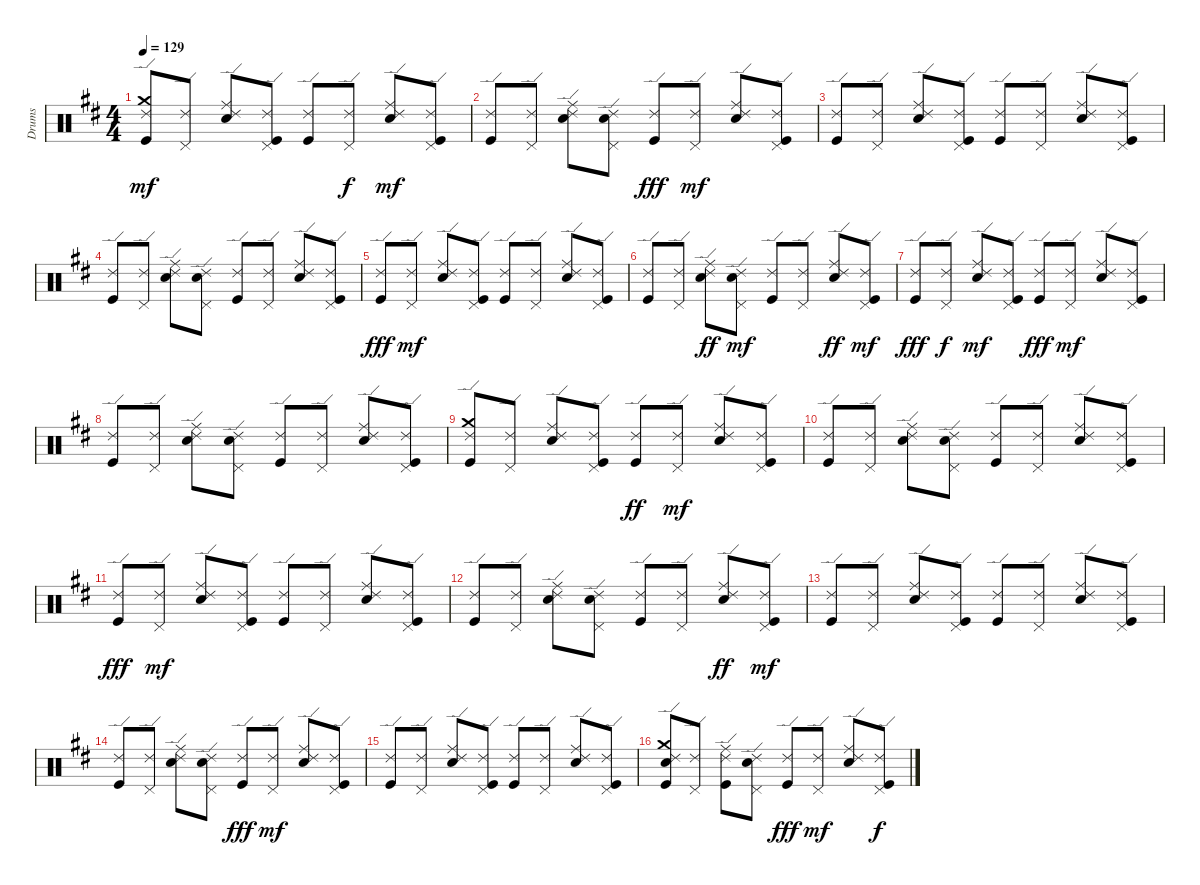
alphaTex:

\track ("Drums" "Drums") {instrument percussion}
\staff {score}
\articulation defaults
\ts (4 4)
\tempo 129
\clef neutral
\ks d
("Kick (hit)" "Crash medium (hit)" "Ride (edge) 2").8{dy mf} ("Pedal Hi-Hat (hit)" "Ride (edge) 2").8 ("Snare (hit) 2" "Ride (middle)" "Ride (edge) 2").8 ("Kick (hit)" "Pedal Hi-Hat (hit)" "Ride (edge) 2").8 ("Kick (hit)" "Ride (edge) 2").8 ("Pedal Hi-Hat (hit)" "Ride (edge) 2").8{dy f} ("Snare (hit) 2" "Ride (middle)" "Ride (edge) 2").8{dy mf} ("Kick (hit)" "Pedal Hi-Hat (hit)" "Ride (edge) 2").8 |
("Kick (hit)" "Ride (edge) 2").8 ("Pedal Hi-Hat (hit)" "Ride (edge) 2").8 ("Snare (hit) 2" "Ride (middle)" "Ride (edge) 2").8 ("Snare (hit) 2" "Pedal Hi-Hat (hit)" "Ride (edge) 2").8 ("Kick (hit)" "Ride (edge) 2").8{dy fff} ("Pedal Hi-Hat (hit)" "Ride (edge) 2").8{dy mf} ("Snare (hit) 2" "Ride (middle)" "Ride (edge) 2").8 ("Kick (hit)" "Pedal Hi-Hat (hit)" "Ride (edge) 2").8 |
("Kick (hit)" "Ride (edge) 2").8 ("Pedal Hi-Hat (hit)" "Ride (edge) 2").8 ("Snare (hit) 2" "Ride (middle)" "Ride (edge) 2").8 ("Kick (hit)" "Pedal Hi-Hat (hit)" "Ride (edge) 2").8 ("Kick (hit)" "Ride (edge) 2").8 ("Pedal Hi-Hat (hit)" "Ride (edge) 2").8 ("Snare (hit) 2" "Ride (middle)" "Ride (edge) 2").8 ("Kick (hit)" "Pedal Hi-Hat (hit)" "Ride (edge) 2").8 |
("Kick (hit)" "Ride (edge) 2").8 ("Pedal Hi-Hat (hit)" "Ride (edge) 2").8 ("Snare (hit) 2" "Ride (middle)" "Ride (edge) 2").8 ("Snare (hit) 2" "Pedal Hi-Hat (hit)" "Ride (edge) 2").8 ("Kick (hit)" "Ride (edge) 2").8 ("Pedal Hi-Hat (hit)" "Ride (edge) 2").8 ("Snare (hit) 2" "Ride (middle)" "Ride (edge) 2").8 ("Kick (hit)" "Pedal Hi-Hat (hit)" "Ride (edge) 2").8 |
("Kick (hit)" "Ride (edge) 2").8{dy fff} ("Pedal Hi-Hat (hit)" "Ride (edge) 2").8{dy mf} ("Snare (hit) 2" "Ride (middle)" "Ride (edge) 2").8 ("Kick (hit)" "Pedal Hi-Hat (hit)" "Ride (edge) 2").8 ("Kick (hit)" "Ride (edge) 2").8 ("Pedal Hi-Hat (hit)" "Ride (edge) 2").8 ("Snare (hit) 2" "Ride (middle)" "Ride (edge) 2").8 ("Kick (hit)" "Pedal Hi-Hat (hit)" "Ride (edge) 2").8 |
("Kick (hit)" "Ride (edge) 2").8 ("Pedal Hi-Hat (hit)" "Ride (edge) 2").8 ("Snare (hit) 2" "Ride (middle)" "Ride (edge) 2").8{dy ff} ("Snare (hit) 2" "Pedal Hi-Hat (hit)" "Ride (edge) 2").8{dy mf} ("Kick (hit)" "Ride (edge) 2").8 ("Pedal Hi-Hat (hit)" "Ride (edge) 2").8 ("Snare (hit) 2" "Ride (middle)" "Ride (edge) 2").8{dy ff} ("Kick (hit)" "Pedal Hi-Hat (hit)" "Ride (edge) 2").8{dy mf} |
("Kick (hit)" "Ride (edge) 2").8{dy fff} ("Pedal Hi-Hat (hit)" "Ride (edge) 2").8{dy f} ("Snare (hit) 2" "Ride (middle)" "Ride (edge) 2").8{dy mf} ("Kick (hit)" "Pedal Hi-Hat (hit)" "Ride (edge) 2").8 ("Kick (hit)" "Ride (edge) 2").8{dy fff} ("Pedal Hi-Hat (hit)" "Ride (edge) 2").8{dy mf} ("Snare (hit) 2" "Ride (middle)" "Ride (edge) 2").8 ("Kick (hit)" "Pedal Hi-Hat (hit)" "Ride (edge) 2").8 |
("Kick (hit)" "Ride (edge) 2").8 ("Pedal Hi-Hat (hit)" "Ride (edge) 2").8 ("Snare (hit) 2" "Ride (middle)" "Ride (edge) 2").8 ("Snare (hit) 2" "Pedal Hi-Hat (hit)" "Ride (edge) 2").8 ("Kick (hit)" "Ride (edge) 2").8 ("Pedal Hi-Hat (hit)" "Ride (edge) 2").8 ("Snare (hit) 2" "Ride (middle)" "Ride (edge) 2").8 ("Kick (hit)" "Pedal Hi-Hat (hit)" "Ride (edge) 2").8 |
("Kick (hit)" "Crash medium (hit)" "Ride (edge) 2").8 ("Pedal Hi-Hat (hit)" "Ride (edge) 2").8 ("Snare (hit) 2" "Ride (middle)" "Ride (edge) 2").8 ("Kick (hit)" "Pedal Hi-Hat (hit)" "Ride (edge) 2").8 ("Kick (hit)" "Ride (edge) 2").8{dy ff} ("Pedal Hi-Hat (hit)" "Ride (edge) 2").8{dy mf} ("Snare (hit) 2" "Ride (middle)" "Ride (edge) 2").8 ("Kick (hit)" "Pedal Hi-Hat (hit)" "Ride (edge) 2").8 |
("Kick (hit)" "Ride (edge) 2").8 ("Pedal Hi-Hat (hit)" "Ride (edge) 2").8 ("Snare (hit) 2" "Ride (middle)" "Ride (edge) 2").8 ("Snare (hit) 2" "Pedal Hi-Hat (hit)" "Ride (edge) 2").8 ("Kick (hit)" "Ride (edge) 2").8 ("Pedal Hi-Hat (hit)" "Ride (edge) 2").8 ("Snare (hit) 2" "Ride (middle)" "Ride (edge) 2").8 ("Kick (hit)" "Pedal Hi-Hat (hit)" "Ride (edge) 2").8 |
("Kick (hit)" "Ride (edge) 2").8{dy fff} ("Pedal Hi-Hat (hit)" "Ride (edge) 2").8{dy mf} ("Snare (hit) 2" "Ride (middle)" "Ride (edge) 2").8 ("Kick (hit)" "Pedal Hi-Hat (hit)" "Ride (edge) 2").8 ("Kick (hit)" "Ride (edge) 2").8 ("Pedal Hi-Hat (hit)" "Ride (edge) 2").8 ("Snare (hit) 2" "Ride (middle)" "Ride (edge) 2").8 ("Kick (hit)" "Pedal Hi-Hat (hit)" "Ride (edge) 2").8 |
("Kick (hit)" "Ride (edge) 2").8 ("Pedal Hi-Hat (hit)" "Ride (edge) 2").8 ("Snare (hit) 2" "Ride (middle)" "Ride (edge) 2").8 ("Snare (hit) 2" "Pedal Hi-Hat (hit)" "Ride (edge) 2").8 ("Kick (hit)" "Ride (edge) 2").8 ("Pedal Hi-Hat (hit)" "Ride (edge) 2").8 ("Snare (hit) 2" "Ride (middle)" "Ride (edge) 2").8{dy ff} ("Kick (hit)" "Pedal Hi-Hat (hit)" "Ride (edge) 2").8{dy mf} |
("Kick (hit)" "Ride (edge) 2").8 ("Pedal Hi-Hat (hit)" "Ride (edge) 2").8 ("Snare (hit) 2" "Ride (middle)" "Ride (edge) 2").8 ("Kick (hit)" "Pedal Hi-Hat (hit)" "Ride (edge) 2").8 ("Kick (hit)" "Ride (edge) 2").8 ("Pedal Hi-Hat (hit)" "Ride (edge) 2").8 ("Snare (hit) 2" "Ride (middle)" "Ride (edge) 2").8 ("Kick (hit)" "Pedal Hi-Hat (hit)" "Ride (edge) 2").8 |
("Kick (hit)" "Ride (edge) 2").8 ("Pedal Hi-Hat (hit)" "Ride (edge) 2").8 ("Snare (hit) 2" "Ride (middle)" "Ride (edge) 2").8 ("Snare (hit) 2" "Pedal Hi-Hat (hit)" "Ride (edge) 2").8 ("Kick (hit)" "Ride (edge) 2").8{dy fff} ("Pedal Hi-Hat (hit)" "Ride (edge) 2").8{dy mf} ("Snare (hit) 2" "Ride (middle)" "Ride (edge) 2").8 ("Kick (hit)" "Pedal Hi-Hat (hit)" "Ride (edge) 2").8 |
("Kick (hit)" "Ride (edge) 2").8 ("Pedal Hi-Hat (hit)" "Ride (edge) 2").8 ("Snare (hit) 2" "Ride (middle)" "Ride (edge) 2").8 ("Kick (hit)" "Pedal Hi-Hat (hit)" "Ride (edge) 2").8 ("Kick (hit)" "Ride (edge) 2").8 ("Pedal Hi-Hat (hit)" "Ride (edge) 2").8 ("Snare (hit) 2" "Ride (middle)" "Ride (edge) 2").8 ("Kick (hit)" "Pedal Hi-Hat (hit)" "Ride (edge) 2").8 |
("Kick (hit)" "Snare (hit) 2" "Crash medium (hit)" "Ride (edge) 2").8 ("Pedal Hi-Hat (hit)" "Ride (edge) 2").8 ("Kick (hit)" "Ride (middle)" "Ride (edge) 2").8 ("Snare (hit) 2" "Pedal Hi-Hat (hit)" "Ride (edge) 2").8 ("Kick (hit)" "Ride (edge) 2").8{dy fff} ("Pedal Hi-Hat (hit)" "Ride (edge) 2").8{dy mf} ("Snare (hit) 2" "Ride (middle)" "Ride (edge) 2").8 ("Kick (hit)" "Pedal Hi-Hat (hit)" "Ride (edge) 2").8{dy f}
